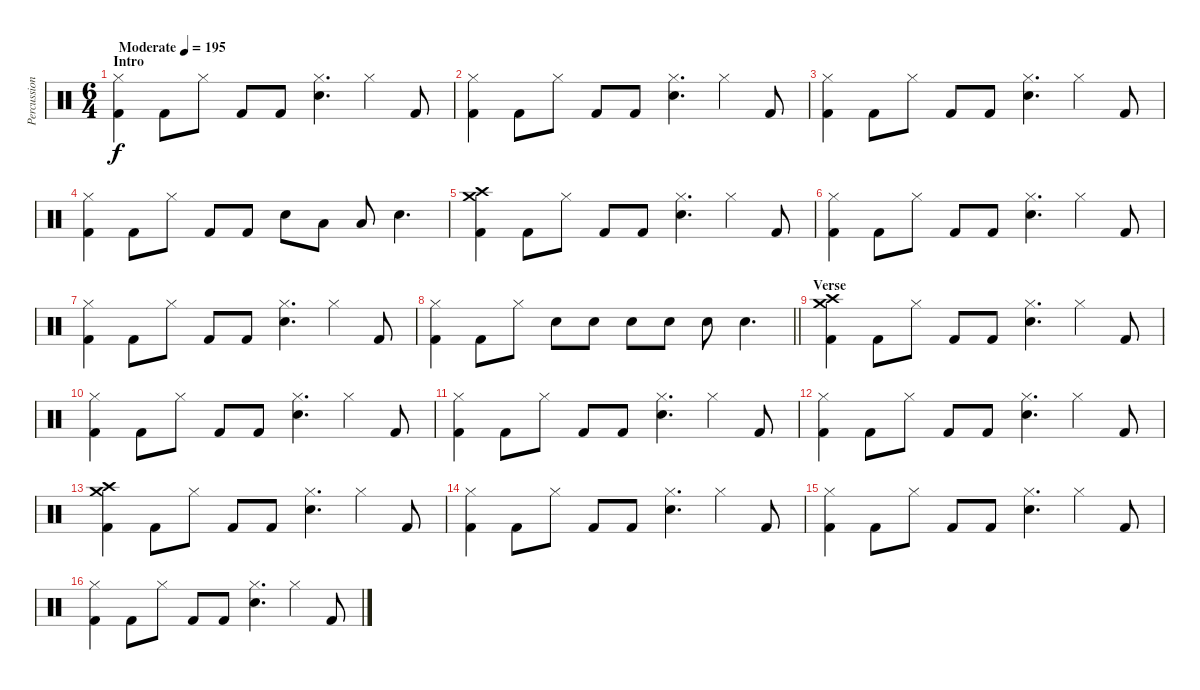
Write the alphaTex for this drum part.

\track ("Percussion" "Percussion") {instrument percussion}
\staff {score}
\articulation defaults
\ts (6 4)
\section ("" "Intro")
\tempo (195 "Moderate")
\clef neutral
\ks c
("Hi-Hat (closed)" "Kick (hit) 2").4{dy f} "Kick (hit) 2".8 "Hi-Hat (closed)".8 "Kick (hit) 2".8 "Kick (hit) 2".8 ("Hi-Hat (closed)" "Electric Snare (hit)").4{d} "Hi-Hat (closed)".4 "Kick (hit) 2".8 |
("Hi-Hat (closed)" "Kick (hit) 2").4 "Kick (hit) 2".8 "Hi-Hat (closed)".8 "Kick (hit) 2".8 "Kick (hit) 2".8 ("Hi-Hat (closed)" "Electric Snare (hit)").4{d} "Hi-Hat (closed)".4 "Kick (hit) 2".8 |
("Hi-Hat (closed)" "Kick (hit) 2").4 "Kick (hit) 2".8 "Hi-Hat (closed)".8 "Kick (hit) 2".8 "Kick (hit) 2".8 ("Hi-Hat (closed)" "Electric Snare (hit)").4{d} "Hi-Hat (closed)".4 "Kick (hit) 2".8 |
("Hi-Hat (closed)" "Kick (hit) 2").4 "Kick (hit) 2".8 "Hi-Hat (closed)".8 "Kick (hit) 2".8 "Kick (hit) 2".8 "Electric Snare (hit)".8 "Low Floor Tom (hit)".8 "Low Floor Tom (hit)".8 "Electric Snare (hit)".4{d} |
("Crash high (hit)" "Crash medium (hit)" "Kick (hit) 2").4 "Kick (hit) 2".8 "Hi-Hat (closed)".8 "Kick (hit) 2".8 "Kick (hit) 2".8 ("Hi-Hat (closed)" "Electric Snare (hit)").4{d} "Hi-Hat (closed)".4 "Kick (hit) 2".8 |
("Hi-Hat (closed)" "Kick (hit) 2").4 "Kick (hit) 2".8 "Hi-Hat (closed)".8 "Kick (hit) 2".8 "Kick (hit) 2".8 ("Hi-Hat (closed)" "Electric Snare (hit)").4{d} "Hi-Hat (closed)".4 "Kick (hit) 2".8 |
("Hi-Hat (closed)" "Kick (hit) 2").4 "Kick (hit) 2".8 "Hi-Hat (closed)".8 "Kick (hit) 2".8 "Kick (hit) 2".8 ("Hi-Hat (closed)" "Electric Snare (hit)").4{d} "Hi-Hat (closed)".4 "Kick (hit) 2".8 |
\barLineRight lightlight
("Hi-Hat (closed)" "Kick (hit) 2").4 "Kick (hit) 2".8 "Hi-Hat (closed)".8 "Electric Snare (hit)".8 "Electric Snare (hit)".8 "Electric Snare (hit)".8 "Electric Snare (hit)".8 "Electric Snare (hit)".8 "Electric Snare (hit)".4{d} |
\section ("" "Verse")
("Crash high (hit)" "Crash medium (hit)" "Kick (hit) 2").4 "Kick (hit) 2".8 "Hi-Hat (closed)".8 "Kick (hit) 2".8 "Kick (hit) 2".8 ("Hi-Hat (closed)" "Electric Snare (hit)").4{d} "Hi-Hat (closed)".4 "Kick (hit) 2".8 |
("Hi-Hat (closed)" "Kick (hit) 2").4 "Kick (hit) 2".8 "Hi-Hat (closed)".8 "Kick (hit) 2".8 "Kick (hit) 2".8 ("Hi-Hat (closed)" "Electric Snare (hit)").4{d} "Hi-Hat (closed)".4 "Kick (hit) 2".8 |
("Hi-Hat (closed)" "Kick (hit) 2").4 "Kick (hit) 2".8 "Hi-Hat (closed)".8 "Kick (hit) 2".8 "Kick (hit) 2".8 ("Hi-Hat (closed)" "Electric Snare (hit)").4{d} "Hi-Hat (closed)".4 "Kick (hit) 2".8 |
("Hi-Hat (closed)" "Kick (hit) 2").4 "Kick (hit) 2".8 "Hi-Hat (closed)".8 "Kick (hit) 2".8 "Kick (hit) 2".8 ("Hi-Hat (closed)" "Electric Snare (hit)").4{d} "Hi-Hat (closed)".4 "Kick (hit) 2".8 |
("Crash high (hit)" "Crash medium (hit)" "Kick (hit) 2").4 "Kick (hit) 2".8 "Hi-Hat (closed)".8 "Kick (hit) 2".8 "Kick (hit) 2".8 ("Hi-Hat (closed)" "Electric Snare (hit)").4{d} "Hi-Hat (closed)".4 "Kick (hit) 2".8 |
("Hi-Hat (closed)" "Kick (hit) 2").4 "Kick (hit) 2".8 "Hi-Hat (closed)".8 "Kick (hit) 2".8 "Kick (hit) 2".8 ("Hi-Hat (closed)" "Electric Snare (hit)").4{d} "Hi-Hat (closed)".4 "Kick (hit) 2".8 |
("Hi-Hat (closed)" "Kick (hit) 2").4 "Kick (hit) 2".8 "Hi-Hat (closed)".8 "Kick (hit) 2".8 "Kick (hit) 2".8 ("Hi-Hat (closed)" "Electric Snare (hit)").4{d} "Hi-Hat (closed)".4 "Kick (hit) 2".8 |
("Hi-Hat (closed)" "Kick (hit) 2").4 "Kick (hit) 2".8 "Hi-Hat (closed)".8 "Kick (hit) 2".8 "Kick (hit) 2".8 ("Hi-Hat (closed)" "Electric Snare (hit)").4{d} "Hi-Hat (closed)".4 "Kick (hit) 2".8
